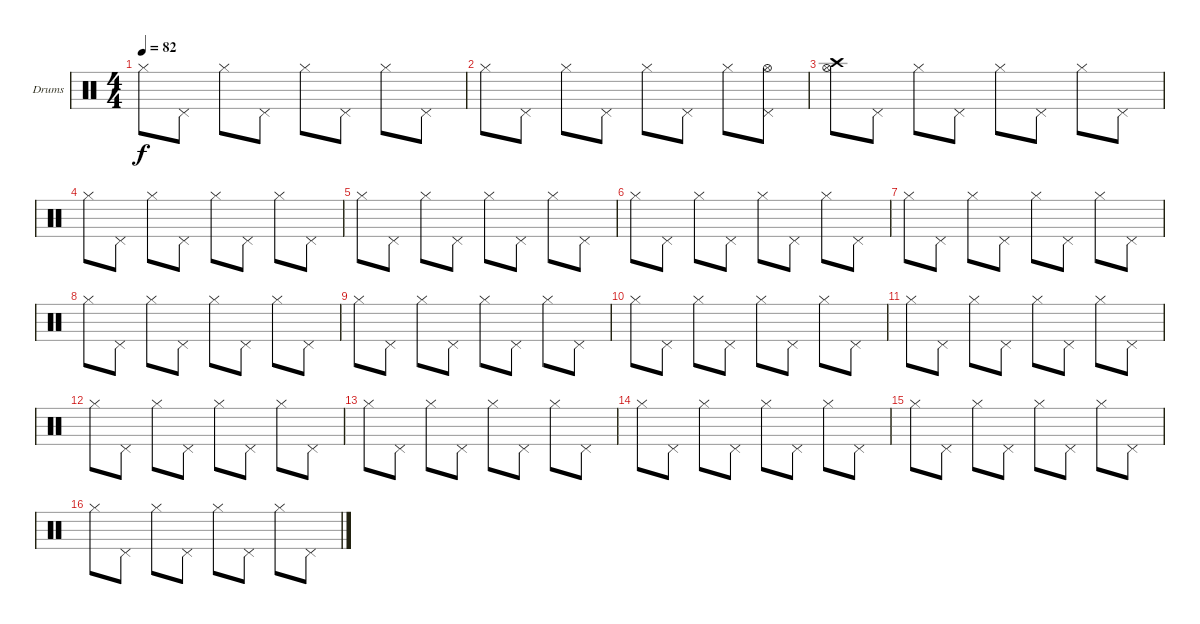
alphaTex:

\bracketExtendMode groupsimilarinstruments
\firstSystemTrackNameOrientation horizontal
\otherSystemsTrackNameOrientation horizontal
\track ("Drumkit" "Drums") {instrument percussion}
\staff {score}
\articulation defaults
\ts (4 4)
\tempo 82
\clef neutral
\ks c "Hi-Hat (closed)".8{dy f} "Pedal Hi-Hat (hit)".8 "Hi-Hat (closed)".8 "Pedal Hi-Hat (hit)".8 "Hi-Hat (closed)".8 "Pedal Hi-Hat (hit)".8 "Hi-Hat (closed)".8 "Pedal Hi-Hat (hit)".8
|
"Hi-Hat (closed)".8 "Pedal Hi-Hat (hit)".8 "Hi-Hat (closed)".8 "Pedal Hi-Hat (hit)".8 "Hi-Hat (closed)".8 "Pedal Hi-Hat (hit)".8 "Hi-Hat (closed)".8 ("Pedal Hi-Hat (hit)" "Hi-Hat (open)").8 |
("Hi-Hat (open)" "Crash high (hit)").8 "Pedal Hi-Hat (hit)".8 "Hi-Hat (closed)".8 "Pedal Hi-Hat (hit)".8 "Hi-Hat (closed)".8 "Pedal Hi-Hat (hit)".8 "Hi-Hat (closed)".8 "Pedal Hi-Hat (hit)".8 |
"Hi-Hat (closed)".8 "Pedal Hi-Hat (hit)".8 "Hi-Hat (closed)".8 "Pedal Hi-Hat (hit)".8 "Hi-Hat (closed)".8 "Pedal Hi-Hat (hit)".8 "Hi-Hat (closed)".8 "Pedal Hi-Hat (hit)".8 |
"Hi-Hat (closed)".8 "Pedal Hi-Hat (hit)".8 "Hi-Hat (closed)".8 "Pedal Hi-Hat (hit)".8 "Hi-Hat (closed)".8 "Pedal Hi-Hat (hit)".8 "Hi-Hat (closed)".8 "Pedal Hi-Hat (hit)".8 |
"Hi-Hat (closed)".8 "Pedal Hi-Hat (hit)".8 "Hi-Hat (closed)".8 "Pedal Hi-Hat (hit)".8 "Hi-Hat (closed)".8 "Pedal Hi-Hat (hit)".8 "Hi-Hat (closed)".8 "Pedal Hi-Hat (hit)".8 |
"Hi-Hat (closed)".8 "Pedal Hi-Hat (hit)".8 "Hi-Hat (closed)".8 "Pedal Hi-Hat (hit)".8 "Hi-Hat (closed)".8 "Pedal Hi-Hat (hit)".8 "Hi-Hat (closed)".8 "Pedal Hi-Hat (hit)".8 |
"Hi-Hat (closed)".8 "Pedal Hi-Hat (hit)".8 "Hi-Hat (closed)".8 "Pedal Hi-Hat (hit)".8 "Hi-Hat (closed)".8 "Pedal Hi-Hat (hit)".8 "Hi-Hat (closed)".8 "Pedal Hi-Hat (hit)".8 |
"Hi-Hat (closed)".8 "Pedal Hi-Hat (hit)".8 "Hi-Hat (closed)".8 "Pedal Hi-Hat (hit)".8 "Hi-Hat (closed)".8 "Pedal Hi-Hat (hit)".8 "Hi-Hat (closed)".8 "Pedal Hi-Hat (hit)".8 |
"Hi-Hat (closed)".8 "Pedal Hi-Hat (hit)".8 "Hi-Hat (closed)".8 "Pedal Hi-Hat (hit)".8 "Hi-Hat (closed)".8 "Pedal Hi-Hat (hit)".8 "Hi-Hat (closed)".8 "Pedal Hi-Hat (hit)".8 |
"Hi-Hat (closed)".8 "Pedal Hi-Hat (hit)".8 "Hi-Hat (closed)".8 "Pedal Hi-Hat (hit)".8 "Hi-Hat (closed)".8 "Pedal Hi-Hat (hit)".8 "Hi-Hat (closed)".8 "Pedal Hi-Hat (hit)".8 |
"Hi-Hat (closed)".8 "Pedal Hi-Hat (hit)".8 "Hi-Hat (closed)".8 "Pedal Hi-Hat (hit)".8 "Hi-Hat (closed)".8 "Pedal Hi-Hat (hit)".8 "Hi-Hat (closed)".8 "Pedal Hi-Hat (hit)".8 |
"Hi-Hat (closed)".8 "Pedal Hi-Hat (hit)".8 "Hi-Hat (closed)".8 "Pedal Hi-Hat (hit)".8 "Hi-Hat (closed)".8 "Pedal Hi-Hat (hit)".8 "Hi-Hat (closed)".8 "Pedal Hi-Hat (hit)".8 |
"Hi-Hat (closed)".8 "Pedal Hi-Hat (hit)".8 "Hi-Hat (closed)".8 "Pedal Hi-Hat (hit)".8 "Hi-Hat (closed)".8 "Pedal Hi-Hat (hit)".8 "Hi-Hat (closed)".8 "Pedal Hi-Hat (hit)".8 |
"Hi-Hat (closed)".8 "Pedal Hi-Hat (hit)".8 "Hi-Hat (closed)".8 "Pedal Hi-Hat (hit)".8 "Hi-Hat (closed)".8 "Pedal Hi-Hat (hit)".8 "Hi-Hat (closed)".8 "Pedal Hi-Hat (hit)".8 |
"Hi-Hat (closed)".8 "Pedal Hi-Hat (hit)".8 "Hi-Hat (closed)".8 "Pedal Hi-Hat (hit)".8 "Hi-Hat (closed)".8 "Pedal Hi-Hat (hit)".8 "Hi-Hat (closed)".8 "Pedal Hi-Hat (hit)".8
